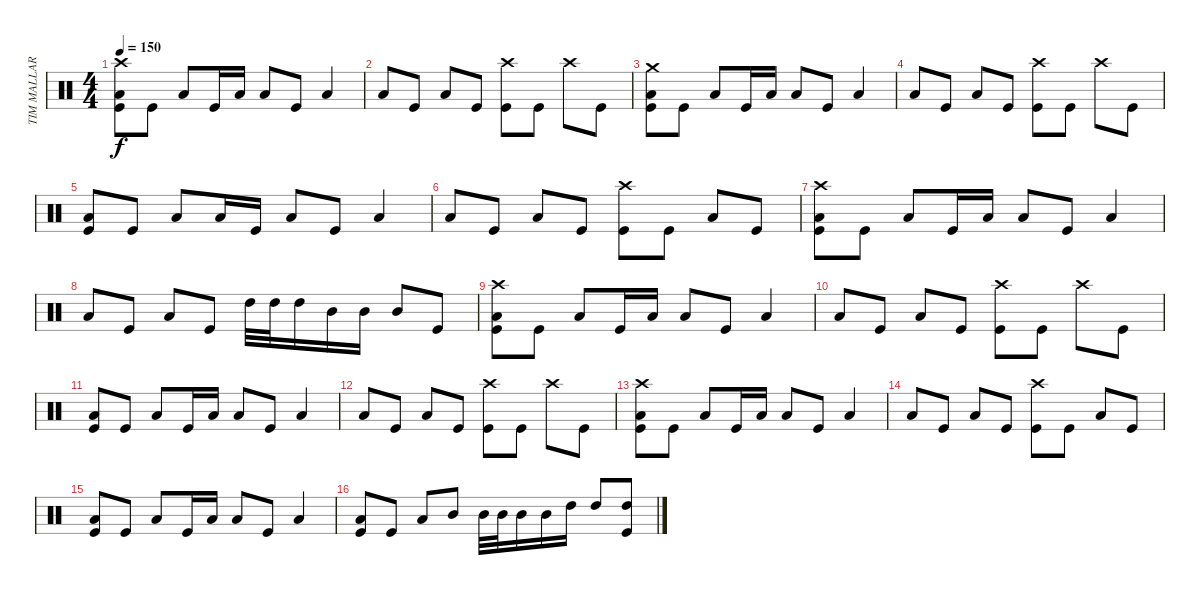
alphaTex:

\track ("TIM MALLARE - drums" "TIM MALLAR") {instrument percussion}
\staff {score}
\articulation defaults
\ts (4 4)
\tempo 150
\clef neutral
\ks c
("Crash high (hit)" "Low Tom (hit)" "Kick (hit)").8{dy f} "Kick (hit)".8 "Low Tom (hit)".8 "Kick (hit)".16 "Low Tom (hit)".16 "Low Tom (hit)".8 "Kick (hit)".8 "Low Tom (hit)".4 |
"Low Tom (hit)".8 "Kick (hit)".8 "Low Tom (hit)".8 "Kick (hit)".8 ("Crash high (hit)" "Kick (hit)").8 "Kick (hit)".8 "Crash high (hit)".8 "Kick (hit)".8 |
("Crash medium (hit)" "Low Tom (hit)" "Kick (hit)").8 "Kick (hit)".8 "Low Tom (hit)".8 "Kick (hit)".16 "Low Tom (hit)".16 "Low Tom (hit)".8 "Kick (hit)".8 "Low Tom (hit)".4 |
"Low Tom (hit)".8 "Kick (hit)".8 "Low Tom (hit)".8 "Kick (hit)".8 ("Crash high (hit)" "Kick (hit)").8 "Kick (hit)".8 "Crash high (hit)".8 "Kick (hit)".8 |
("Low Tom (hit)" "Kick (hit)").8 "Kick (hit)".8 "Low Tom (hit)".8 "Low Tom (hit)".16 "Kick (hit)".16 "Low Tom (hit)".8 "Kick (hit)".8 "Low Tom (hit)".4 |
"Low Tom (hit)".8 "Kick (hit)".8 "Low Tom (hit)".8 "Kick (hit)".8 ("Crash high (hit)" "Kick (hit)").8 "Kick (hit)".8 "Low Tom (hit)".8 "Kick (hit)".8 |
("Crash high (hit)" "Low Tom (hit)" "Kick (hit)").8 "Kick (hit)".8 "Low Tom (hit)".8 "Kick (hit)".16 "Low Tom (hit)".16 "Low Tom (hit)".8 "Kick (hit)".8 "Low Tom (hit)".4 |
"Low Tom (hit)".8 "Kick (hit)".8 "Low Tom (hit)".8 "Kick (hit)".8 "High Tom (hit)".32 "High Tom (hit)".32 "High Tom (hit)".16 "Mid Tom (hit)".16 "Mid Tom (hit)".16 "Mid Tom (hit)".8 "Kick (hit)".8 |
("Crash high (hit)" "Low Tom (hit)" "Kick (hit)").8 "Kick (hit)".8 "Low Tom (hit)".8 "Kick (hit)".16 "Low Tom (hit)".16 "Low Tom (hit)".8 "Kick (hit)".8 "Low Tom (hit)".4 |
"Low Tom (hit)".8 "Kick (hit)".8 "Low Tom (hit)".8 "Kick (hit)".8 ("Crash high (hit)" "Kick (hit)").8 "Kick (hit)".8 "Crash high (hit)".8 "Kick (hit)".8 |
("Low Tom (hit)" "Kick (hit)").8 "Kick (hit)".8 "Low Tom (hit)".8 "Kick (hit)".16 "Low Tom (hit)".16 "Low Tom (hit)".8 "Kick (hit)".8 "Low Tom (hit)".4 |
"Low Tom (hit)".8 "Kick (hit)".8 "Low Tom (hit)".8 "Kick (hit)".8 ("Crash high (hit)" "Kick (hit)").8 "Kick (hit)".8 "Crash high (hit)".8 "Kick (hit)".8 |
("Crash high (hit)" "Low Tom (hit)" "Kick (hit)").8 "Kick (hit)".8 "Low Tom (hit)".8 "Kick (hit)".16 "Low Tom (hit)".16 "Low Tom (hit)".8 "Kick (hit)".8 "Low Tom (hit)".4 |
"Low Tom (hit)".8 "Kick (hit)".8 "Low Tom (hit)".8 "Kick (hit)".8 ("Crash high (hit)" "Kick (hit)").8 "Kick (hit)".8 "Low Tom (hit)".8 "Kick (hit)".8 |
("Low Tom (hit)" "Kick (hit)").8 "Kick (hit)".8 "Low Tom (hit)".8 "Kick (hit)".16 "Low Tom (hit)".16 "Low Tom (hit)".8 "Kick (hit)".8 "Low Tom (hit)".4 |
("Low Tom (hit)" "Kick (hit)").8 "Kick (hit)".8 "Low Tom (hit)".8 "Mid Tom (hit)".8 "Mid Tom (hit)".32 "Mid Tom (hit)".32 "Mid Tom (hit)".16 "Mid Tom (hit)".16 "High Tom (hit)".16 "High Tom (hit)".8 ("High Tom (hit)" "Kick (hit)").8
